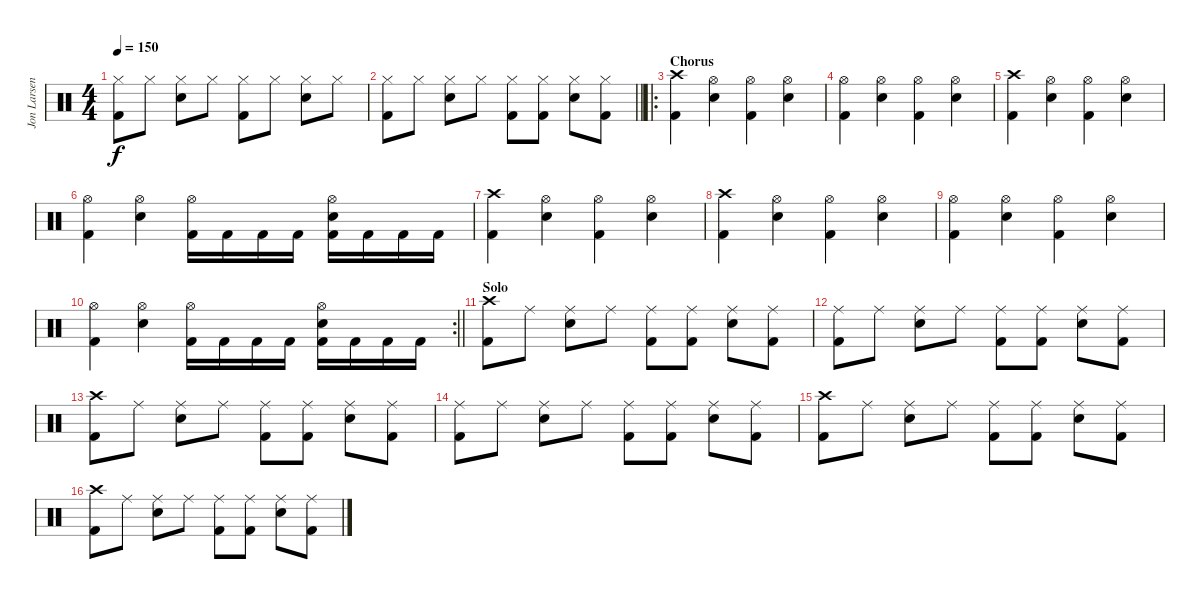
\track ("Jon Larsen" "Jon Larsen") {instrument percussion}
\staff {score}
\articulation defaults
\ts (4 4)
\tempo 150
\clef neutral
\ks c
("Hi-Hat (closed)" "Kick (hit) 2").8{dy f} "Hi-Hat (closed)".8 ("Hi-Hat (closed)" "Electric Snare (hit)").8 "Hi-Hat (closed)".8 ("Hi-Hat (closed)" "Kick (hit) 2").8 "Hi-Hat (closed)".8 ("Hi-Hat (closed)" "Electric Snare (hit)").8 "Hi-Hat (closed)".8 |
\barLineRight lightlight
("Hi-Hat (closed)" "Kick (hit) 2").8 "Hi-Hat (closed)".8 ("Hi-Hat (closed)" "Electric Snare (hit)").8 "Hi-Hat (closed)".8 ("Hi-Hat (closed)" "Kick (hit) 2").8 ("Hi-Hat (closed)" "Kick (hit) 2").8 ("Hi-Hat (closed)" "Electric Snare (hit)").8 ("Hi-Hat (closed)" "Kick (hit) 2").8 |
\ro
\section ("" "Chorus")
("Crash high (hit)" "Kick (hit) 2").4 ("Hi-Hat (open)" "Electric Snare (hit)").4 ("Hi-Hat (open)" "Kick (hit) 2").4 ("Hi-Hat (open)" "Electric Snare (hit)").4 |
("Hi-Hat (open)" "Kick (hit) 2").4 ("Hi-Hat (open)" "Electric Snare (hit)").4 ("Hi-Hat (open)" "Kick (hit) 2").4 ("Hi-Hat (open)" "Electric Snare (hit)").4 |
("Crash high (hit)" "Kick (hit) 2").4 ("Hi-Hat (open)" "Electric Snare (hit)").4 ("Hi-Hat (open)" "Kick (hit) 2").4 ("Hi-Hat (open)" "Electric Snare (hit)").4 |
("Hi-Hat (open)" "Kick (hit) 2").4 ("Hi-Hat (open)" "Electric Snare (hit)").4 ("Hi-Hat (open)" "Kick (hit) 2").16 "Kick (hit) 2".16 "Kick (hit) 2".16 "Kick (hit) 2".16 ("Hi-Hat (open)" "Electric Snare (hit)" "Kick (hit) 2").16 "Kick (hit) 2".16 "Kick (hit) 2".16 "Kick (hit) 2".16 |
("Crash high (hit)" "Kick (hit) 2").4 ("Hi-Hat (open)" "Electric Snare (hit)").4 ("Hi-Hat (open)" "Kick (hit) 2").4 ("Hi-Hat (open)" "Electric Snare (hit)").4 |
("Crash high (hit)" "Kick (hit) 2").4 ("Hi-Hat (open)" "Electric Snare (hit)").4 ("Hi-Hat (open)" "Kick (hit) 2").4 ("Hi-Hat (open)" "Electric Snare (hit)").4 |
("Hi-Hat (open)" "Kick (hit) 2").4 ("Hi-Hat (open)" "Electric Snare (hit)").4 ("Hi-Hat (open)" "Kick (hit) 2").4 ("Hi-Hat (open)" "Electric Snare (hit)").4 |
\rc 2
\barLineRight lightlight
("Hi-Hat (open)" "Kick (hit) 2").4 ("Hi-Hat (open)" "Electric Snare (hit)").4 ("Hi-Hat (open)" "Kick (hit) 2").16 "Kick (hit) 2".16 "Kick (hit) 2".16 "Kick (hit) 2".16 ("Hi-Hat (open)" "Electric Snare (hit)" "Kick (hit) 2").16 "Kick (hit) 2".16 "Kick (hit) 2".16 "Kick (hit) 2".16 |
\section ("" "Solo")
("Crash high (hit)" "Kick (hit) 2").8 "Ride (middle)".8 ("Ride (middle)" "Electric Snare (hit)").8 "Ride (middle)".8 ("Ride (middle)" "Kick (hit) 2").8 ("Ride (middle)" "Kick (hit) 2").8 ("Ride (middle)" "Electric Snare (hit)").8 ("Ride (middle)" "Kick (hit) 2").8 |
("Ride (middle)" "Kick (hit) 2").8 "Ride (middle)".8 ("Ride (middle)" "Electric Snare (hit)").8 "Ride (middle)".8 ("Ride (middle)" "Kick (hit) 2").8 ("Ride (middle)" "Kick (hit) 2").8 ("Ride (middle)" "Electric Snare (hit)").8 ("Ride (middle)" "Kick (hit) 2").8 |
("Crash high (hit)" "Kick (hit) 2").8 "Ride (middle)".8 ("Ride (middle)" "Electric Snare (hit)").8 "Ride (middle)".8 ("Ride (middle)" "Kick (hit) 2").8 ("Ride (middle)" "Kick (hit) 2").8 ("Ride (middle)" "Electric Snare (hit)").8 ("Ride (middle)" "Kick (hit) 2").8 |
("Ride (middle)" "Kick (hit) 2").8 "Ride (middle)".8 ("Ride (middle)" "Electric Snare (hit)").8 "Ride (middle)".8 ("Ride (middle)" "Kick (hit) 2").8 ("Ride (middle)" "Kick (hit) 2").8 ("Ride (middle)" "Electric Snare (hit)").8 ("Ride (middle)" "Kick (hit) 2").8 |
("Crash high (hit)" "Kick (hit) 2").8 "Ride (middle)".8 ("Ride (middle)" "Electric Snare (hit)").8 "Ride (middle)".8 ("Ride (middle)" "Kick (hit) 2").8 ("Ride (middle)" "Kick (hit) 2").8 ("Ride (middle)" "Electric Snare (hit)").8 ("Ride (middle)" "Kick (hit) 2").8 |
("Crash high (hit)" "Kick (hit) 2").8 "Ride (middle)".8 ("Ride (middle)" "Electric Snare (hit)").8 "Ride (middle)".8 ("Ride (middle)" "Kick (hit) 2").8 ("Ride (middle)" "Kick (hit) 2").8 ("Ride (middle)" "Electric Snare (hit)").8 ("Ride (middle)" "Kick (hit) 2").8
